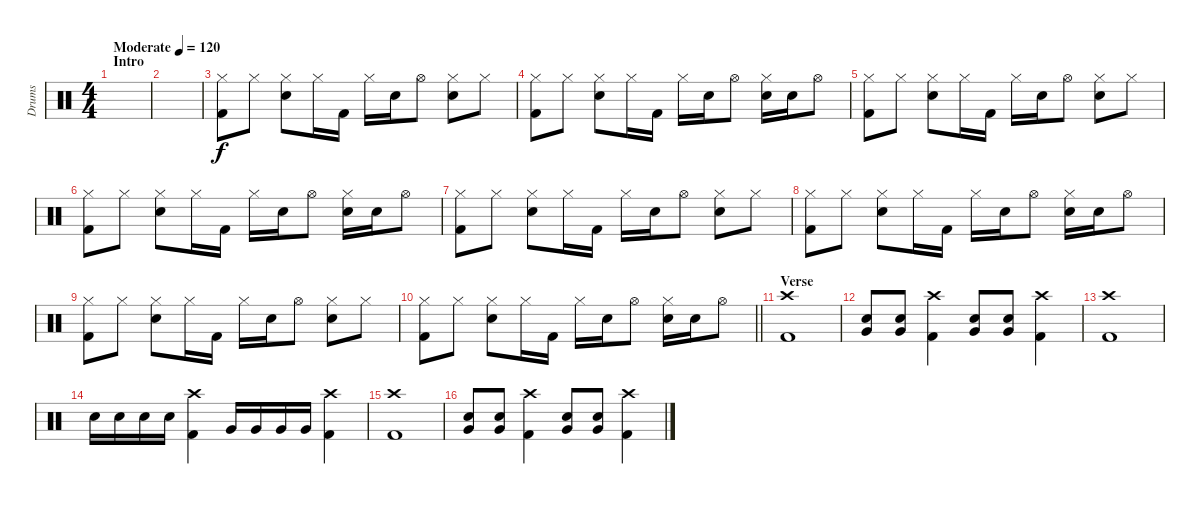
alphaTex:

\track ("Drums" "Drums") {instrument percussion}
\staff {score}
\articulation defaults
\ts (4 4)
\section ("" "Intro")
\tempo (120 "Moderate")
\clef neutral
\ks c
|
|
("Hi-Hat (closed)" "Kick (hit) 2").8 "Hi-Hat (closed)".8 ("Hi-Hat (closed)" "Electric Snare (hit)").8 "Hi-Hat (closed)".16 "Kick (hit) 2".16 "Hi-Hat (closed)".16 "Electric Snare (hit)".16 "Hi-Hat (open)".8 ("Hi-Hat (closed)" "Electric Snare (hit)").8 "Hi-Hat (closed)".8 |
("Hi-Hat (closed)" "Kick (hit) 2").8 "Hi-Hat (closed)".8 ("Hi-Hat (closed)" "Electric Snare (hit)").8 "Hi-Hat (closed)".16 "Kick (hit) 2".16 "Hi-Hat (closed)".16 "Electric Snare (hit)".16 "Hi-Hat (open)".8 ("Hi-Hat (closed)" "Electric Snare (hit)").16 "Electric Snare (hit)".16 "Hi-Hat (open)".8 |
("Hi-Hat (closed)" "Kick (hit) 2").8 "Hi-Hat (closed)".8 ("Hi-Hat (closed)" "Electric Snare (hit)").8 "Hi-Hat (closed)".16 "Kick (hit) 2".16 "Hi-Hat (closed)".16 "Electric Snare (hit)".16 "Hi-Hat (open)".8 ("Hi-Hat (closed)" "Electric Snare (hit)").8 "Hi-Hat (closed)".8 |
("Hi-Hat (closed)" "Kick (hit) 2").8 "Hi-Hat (closed)".8 ("Hi-Hat (closed)" "Electric Snare (hit)").8 "Hi-Hat (closed)".16 "Kick (hit) 2".16 "Hi-Hat (closed)".16 "Electric Snare (hit)".16 "Hi-Hat (open)".8 ("Hi-Hat (closed)" "Electric Snare (hit)").16 "Electric Snare (hit)".16 "Hi-Hat (open)".8 |
("Hi-Hat (closed)" "Kick (hit) 2").8 "Hi-Hat (closed)".8 ("Hi-Hat (closed)" "Electric Snare (hit)").8 "Hi-Hat (closed)".16 "Kick (hit) 2".16 "Hi-Hat (closed)".16 "Electric Snare (hit)".16 "Hi-Hat (open)".8 ("Hi-Hat (closed)" "Electric Snare (hit)").8 "Hi-Hat (closed)".8 |
("Hi-Hat (closed)" "Kick (hit) 2").8 "Hi-Hat (closed)".8 ("Hi-Hat (closed)" "Electric Snare (hit)").8 "Hi-Hat (closed)".16 "Kick (hit) 2".16 "Hi-Hat (closed)".16 "Electric Snare (hit)".16 "Hi-Hat (open)".8 ("Hi-Hat (closed)" "Electric Snare (hit)").16 "Electric Snare (hit)".16 "Hi-Hat (open)".8 |
("Hi-Hat (closed)" "Kick (hit) 2").8 "Hi-Hat (closed)".8 ("Hi-Hat (closed)" "Electric Snare (hit)").8 "Hi-Hat (closed)".16 "Kick (hit) 2".16 "Hi-Hat (closed)".16 "Electric Snare (hit)".16 "Hi-Hat (open)".8 ("Hi-Hat (closed)" "Electric Snare (hit)").8 "Hi-Hat (closed)".8 |
\barLineRight lightlight
("Hi-Hat (closed)" "Kick (hit) 2").8 "Hi-Hat (closed)".8 ("Hi-Hat (closed)" "Electric Snare (hit)").8 "Hi-Hat (closed)".16 "Kick (hit) 2".16 "Hi-Hat (closed)".16 "Electric Snare (hit)".16 "Hi-Hat (open)".8 ("Hi-Hat (closed)" "Electric Snare (hit)").16 "Electric Snare (hit)".16 "Hi-Hat (open)".8 |
\section ("" "Verse")
("Crash high (hit)" "Kick (hit) 2").1 |
("Very Low Tom (hit)" "Electric Snare (hit)").8 ("Very Low Tom (hit)" "Electric Snare (hit)").8 ("Crash high (hit)" "Kick (hit) 2").4 ("Very Low Tom (hit)" "Electric Snare (hit)").8 ("Very Low Tom (hit)" "Electric Snare (hit)").8 ("Crash high (hit)" "Kick (hit) 2").4 |
("Crash high (hit)" "Kick (hit) 2").1 |
"Electric Snare (hit)".16 "Electric Snare (hit)".16 "Electric Snare (hit)".16 "Electric Snare (hit)".16 ("Crash high (hit)" "Kick (hit) 2").4 "Very Low Tom (hit)".16 "Very Low Tom (hit)".16 "Very Low Tom (hit)".16 "Very Low Tom (hit)".16 ("Crash high (hit)" "Kick (hit) 2").4 |
("Crash high (hit)" "Kick (hit) 2").1 |
("Very Low Tom (hit)" "Electric Snare (hit)").8 ("Very Low Tom (hit)" "Electric Snare (hit)").8 ("Crash high (hit)" "Kick (hit) 2").4 ("Very Low Tom (hit)" "Electric Snare (hit)").8 ("Very Low Tom (hit)" "Electric Snare (hit)").8 ("Crash high (hit)" "Kick (hit) 2").4
